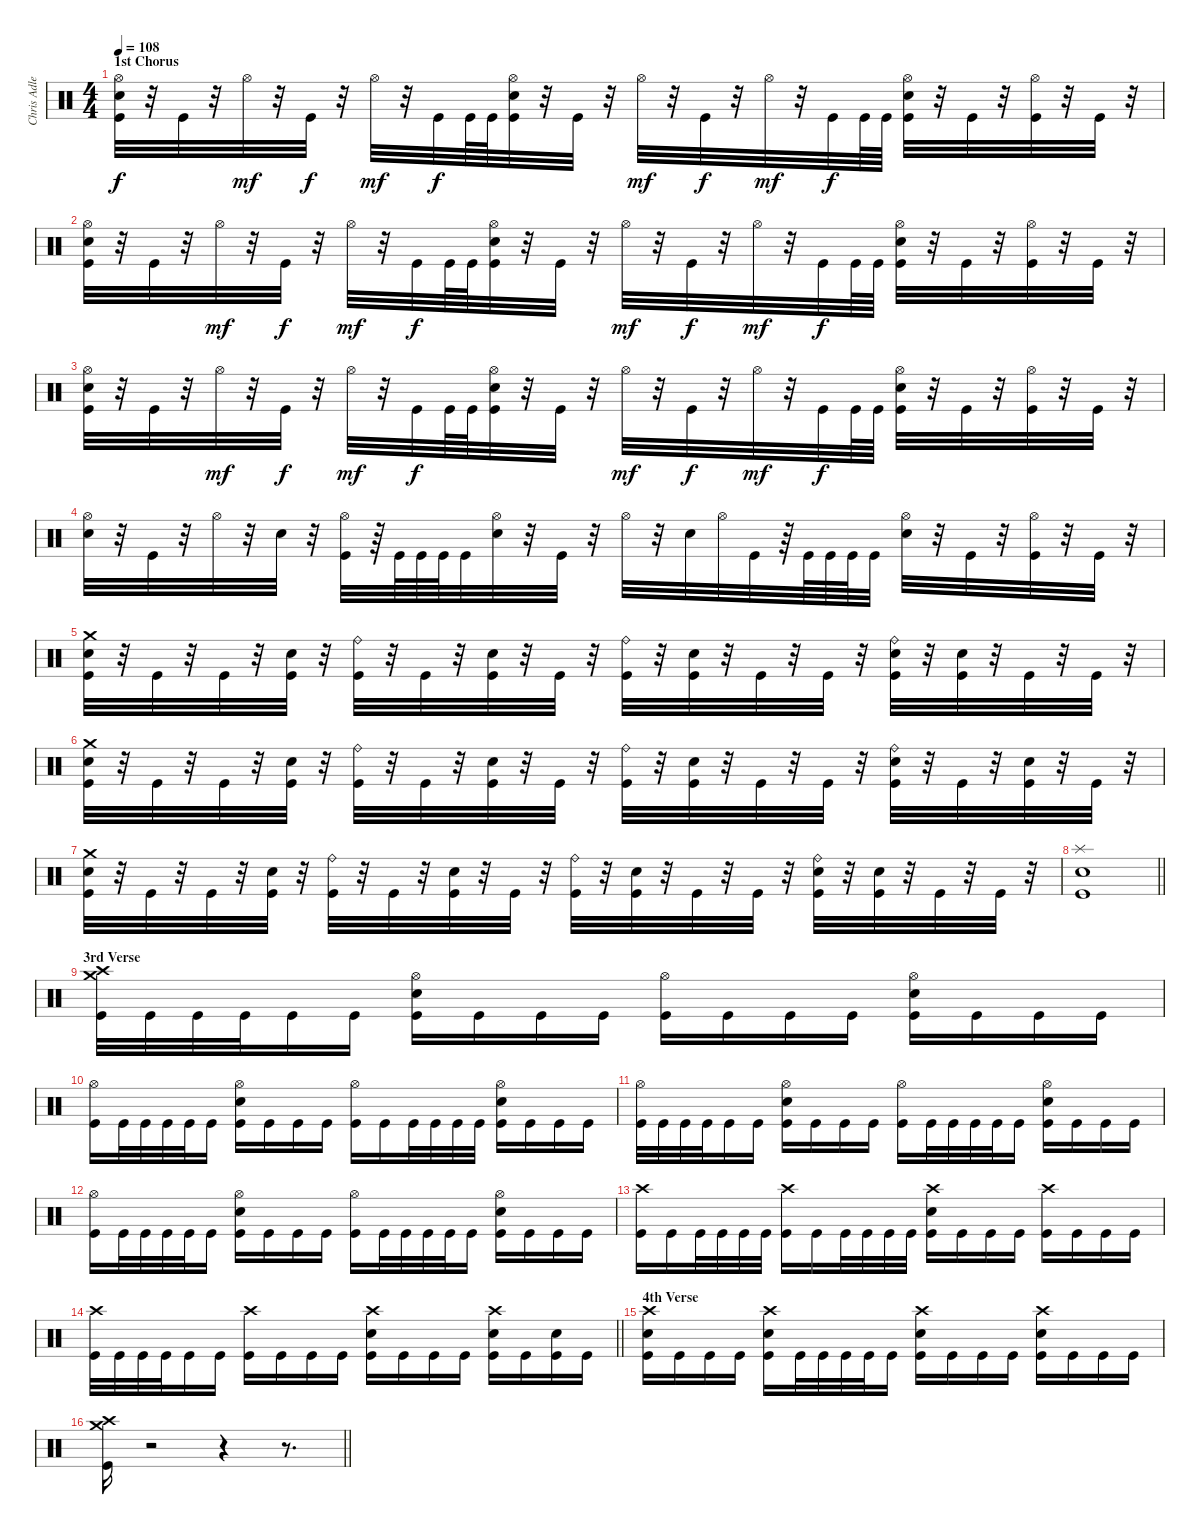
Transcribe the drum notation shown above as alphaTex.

\track ("Chris Adler (Drumkit)" "Chris Adle") {instrument percussion}
\staff {score}
\articulation defaults
\ts (4 4)
\section ("" "1st Chorus")
\tempo 108
\clef neutral
\ks c
("Kick (hit)" "Snare (hit) 2" "Hi-Hat (open)").32{dy f} r.32 "Kick (hit)".32 r.32 "Hi-Hat (open)".32{dy mf} r.32 "Kick (hit)".32{dy f} r.32 "Hi-Hat (open)".32{dy mf} r.32 "Kick (hit)".32{dy f} "Kick (hit)".64 "Kick (hit)".64 ("Kick (hit)" "Snare (hit) 2" "Hi-Hat (open)").32 r.32 "Kick (hit)".32 r.32 "Hi-Hat (open)".32{dy mf} r.32 "Kick (hit)".32{dy f} r.32 "Hi-Hat (open)".32{dy mf} r.32 "Kick (hit)".32{dy f} "Kick (hit)".64 "Kick (hit)".64 ("Kick (hit)" "Snare (hit) 2" "Hi-Hat (open)").32 r.32 "Kick (hit)".32 r.32 ("Kick (hit)" "Hi-Hat (open)").32 r.32 "Kick (hit)".32 r.32 |
("Kick (hit)" "Snare (hit) 2" "Hi-Hat (open)").32 r.32 "Kick (hit)".32 r.32 "Hi-Hat (open)".32{dy mf} r.32 "Kick (hit)".32{dy f} r.32 "Hi-Hat (open)".32{dy mf} r.32 "Kick (hit)".32{dy f} "Kick (hit)".64 "Kick (hit)".64 ("Kick (hit)" "Snare (hit) 2" "Hi-Hat (open)").32 r.32 "Kick (hit)".32 r.32 "Hi-Hat (open)".32{dy mf} r.32 "Kick (hit)".32{dy f} r.32 "Hi-Hat (open)".32{dy mf} r.32 "Kick (hit)".32{dy f} "Kick (hit)".64 "Kick (hit)".64 ("Kick (hit)" "Snare (hit) 2" "Hi-Hat (open)").32 r.32 "Kick (hit)".32 r.32 ("Kick (hit)" "Hi-Hat (open)").32 r.32 "Kick (hit)".32 r.32 |
("Kick (hit)" "Snare (hit) 2" "Hi-Hat (open)").32 r.32 "Kick (hit)".32 r.32 "Hi-Hat (open)".32{dy mf} r.32 "Kick (hit)".32{dy f} r.32 "Hi-Hat (open)".32{dy mf} r.32 "Kick (hit)".32{dy f} "Kick (hit)".64 "Kick (hit)".64 ("Kick (hit)" "Snare (hit) 2" "Hi-Hat (open)").32 r.32 "Kick (hit)".32 r.32 "Hi-Hat (open)".32{dy mf} r.32 "Kick (hit)".32{dy f} r.32 "Hi-Hat (open)".32{dy mf} r.32 "Kick (hit)".32{dy f} "Kick (hit)".64 "Kick (hit)".64 ("Kick (hit)" "Snare (hit) 2" "Hi-Hat (open)").32 r.32 "Kick (hit)".32 r.32 ("Kick (hit)" "Hi-Hat (open)").32 r.32 "Kick (hit)".32 r.32 |
("Snare (hit) 2" "Hi-Hat (open)").32 r.32 "Kick (hit)".32 r.32 "Hi-Hat (open)".32 r.32 "Snare (hit) 2".32 r.32 ("Kick (hit)" "Hi-Hat (open)").32 r.64 "Kick (hit)".64 "Kick (hit)".64 "Kick (hit)".64 "Kick (hit)".32 ("Snare (hit) 2" "Hi-Hat (open)").32 r.32 "Kick (hit)".32 r.32 "Hi-Hat (open)".32 r.32 "Snare (hit) 2".32 "Hi-Hat (open)".32 "Kick (hit)".32 r.64 "Kick (hit)".64 "Kick (hit)".64 "Kick (hit)".64 "Kick (hit)".32 ("Snare (hit) 2" "Hi-Hat (open)").32 r.32 "Kick (hit)".32 r.32 ("Kick (hit)" "Hi-Hat (open)").32 r.32 "Kick (hit)".32 r.32 |
("Kick (hit)" "Snare (hit) 2" "Crash medium (hit)").32 r.32 "Kick (hit)".32 r.32 "Kick (hit)".32 r.32 ("Kick (hit)" "Snare (hit) 2").32 r.32 ("Kick (hit)" "Ride (bell)").32 r.32 "Kick (hit)".32 r.32 ("Kick (hit)" "Snare (hit) 2").32 r.32 "Kick (hit)".32 r.32 ("Kick (hit)" "Ride (bell)").32 r.32 ("Kick (hit)" "Snare (hit) 2").32 r.32 "Kick (hit)".32 r.32 "Kick (hit)".32 r.32 ("Kick (hit)" "Snare (hit) 2" "Ride (bell)").32 r.32 ("Kick (hit)" "Snare (hit) 2").32 r.32 "Kick (hit)".32 r.32 "Kick (hit)".32 r.32 |
("Kick (hit)" "Snare (hit) 2" "Crash medium (hit)").32 r.32 "Kick (hit)".32 r.32 "Kick (hit)".32 r.32 ("Kick (hit)" "Snare (hit) 2").32 r.32 ("Kick (hit)" "Ride (bell)").32 r.32 "Kick (hit)".32 r.32 ("Kick (hit)" "Snare (hit) 2").32 r.32 "Kick (hit)".32 r.32 ("Kick (hit)" "Ride (bell)").32 r.32 ("Kick (hit)" "Snare (hit) 2").32 r.32 "Kick (hit)".32 r.32 "Kick (hit)".32 r.32 ("Kick (hit)" "Snare (hit) 2" "Ride (bell)").32 r.32 "Kick (hit)".32 r.32 ("Kick (hit)" "Snare (hit) 2").32 r.32 "Kick (hit)".32 r.32 |
("Kick (hit)" "Snare (hit) 2" "Crash medium (hit)").32 r.32 "Kick (hit)".32 r.32 "Kick (hit)".32 r.32 ("Kick (hit)" "Snare (hit) 2").32 r.32 ("Kick (hit)" "Ride (bell)").32 r.32 "Kick (hit)".32 r.32 ("Kick (hit)" "Snare (hit) 2").32 r.32 "Kick (hit)".32 r.32 ("Kick (hit)" "Ride (bell)").32 r.32 ("Kick (hit)" "Snare (hit) 2").32 r.32 "Kick (hit)".32 r.32 "Kick (hit)".32 r.32 ("Kick (hit)" "Snare (hit) 2" "Ride (bell)").32 r.32 ("Kick (hit)" "Snare (hit) 2").32 r.32 "Kick (hit)".32 r.32 "Kick (hit)".32 r.32 |
\barLineRight lightlight
("Kick (hit)" "Snare (hit) 2" "Splash (hit)").1 |
\section ("" "3rd Verse")
("Kick (hit)" "Crash high (hit)" "Crash medium (hit)").32 "Kick (hit)".32 "Kick (hit)".32 "Kick (hit)".32 "Kick (hit)".16 "Kick (hit)".16 ("Kick (hit)" "Snare (hit) 2" "Hi-Hat (open)").16 "Kick (hit)".16 "Kick (hit)".16 "Kick (hit)".16 ("Kick (hit)" "Hi-Hat (open)").16 "Kick (hit)".16 "Kick (hit)".16 "Kick (hit)".16 ("Kick (hit)" "Snare (hit) 2" "Hi-Hat (open)").16 "Kick (hit)".16 "Kick (hit)".16 "Kick (hit)".16 |
("Kick (hit)" "Hi-Hat (open)").16 "Kick (hit)".32 "Kick (hit)".32 "Kick (hit)".32 "Kick (hit)".32 "Kick (hit)".16 ("Kick (hit)" "Snare (hit) 2" "Hi-Hat (open)").16 "Kick (hit)".16 "Kick (hit)".16 "Kick (hit)".16 ("Kick (hit)" "Hi-Hat (open)").16 "Kick (hit)".16 "Kick (hit)".32 "Kick (hit)".32 "Kick (hit)".32 "Kick (hit)".32 ("Kick (hit)" "Snare (hit) 2" "Hi-Hat (open)").16 "Kick (hit)".16 "Kick (hit)".16 "Kick (hit)".16 |
("Kick (hit)" "Hi-Hat (open)").32 "Kick (hit)".32 "Kick (hit)".32 "Kick (hit)".32 "Kick (hit)".16 "Kick (hit)".16 ("Kick (hit)" "Snare (hit) 2" "Hi-Hat (open)").16 "Kick (hit)".16 "Kick (hit)".16 "Kick (hit)".16 ("Kick (hit)" "Hi-Hat (open)").16 "Kick (hit)".32 "Kick (hit)".32 "Kick (hit)".32 "Kick (hit)".32 "Kick (hit)".16 ("Kick (hit)" "Snare (hit) 2" "Hi-Hat (open)").16 "Kick (hit)".16 "Kick (hit)".16 "Kick (hit)".16 |
("Kick (hit)" "Hi-Hat (open)").16 "Kick (hit)".32 "Kick (hit)".32 "Kick (hit)".32 "Kick (hit)".32 "Kick (hit)".16 ("Kick (hit)" "Snare (hit) 2" "Hi-Hat (open)").16 "Kick (hit)".16 "Kick (hit)".16 "Kick (hit)".16 ("Kick (hit)" "Hi-Hat (open)").16 "Kick (hit)".32 "Kick (hit)".32 "Kick (hit)".32 "Kick (hit)".32 "Kick (hit)".16 ("Kick (hit)" "Snare (hit) 2" "Hi-Hat (open)").16 "Kick (hit)".16 "Kick (hit)".16 "Kick (hit)".16 |
("Kick (hit)" "Crash high (hit)").16 "Kick (hit)".16 "Kick (hit)".32 "Kick (hit)".32 "Kick (hit)".32 "Kick (hit)".32 ("Kick (hit)" "Crash high (hit)").16 "Kick (hit)".16 "Kick (hit)".32 "Kick (hit)".32 "Kick (hit)".32 "Kick (hit)".32 ("Kick (hit)" "Snare (hit) 2" "Crash high (hit)").16 "Kick (hit)".16 "Kick (hit)".16 "Kick (hit)".16 ("Kick (hit)" "Crash high (hit)").16 "Kick (hit)".16 "Kick (hit)".16 "Kick (hit)".16 |
\barLineRight lightlight
("Kick (hit)" "Crash high (hit)").32 "Kick (hit)".32 "Kick (hit)".32 "Kick (hit)".32 "Kick (hit)".16 "Kick (hit)".16 ("Kick (hit)" "Crash high (hit)").16 "Kick (hit)".16 "Kick (hit)".16 "Kick (hit)".16 ("Kick (hit)" "Snare (hit) 2" "Crash high (hit)").16 "Kick (hit)".16 "Kick (hit)".16 "Kick (hit)".16 ("Kick (hit)" "Snare (hit) 2" "Crash high (hit)").16 "Kick (hit)".16 ("Kick (hit)" "Snare (hit) 2").16 "Kick (hit)".16 |
\section ("" "4th Verse")
("Kick (hit)" "Snare (hit) 2" "Crash high (hit)").16 "Kick (hit)".16 "Kick (hit)".16 "Kick (hit)".16 ("Kick (hit)" "Snare (hit) 2" "Crash high (hit)").16 "Kick (hit)".32 "Kick (hit)".32 "Kick (hit)".32 "Kick (hit)".32 "Kick (hit)".16 ("Kick (hit)" "Snare (hit) 2" "Crash high (hit)").16 "Kick (hit)".16 "Kick (hit)".16 "Kick (hit)".16 ("Kick (hit)" "Snare (hit) 2" "Crash high (hit)").16 "Kick (hit)".16 "Kick (hit)".16 "Kick (hit)".16 |
\barLineRight lightlight
("Kick (hit)" "Crash medium (hit)" "Crash high (hit)").16 r.2 r.4 r.8{d}
